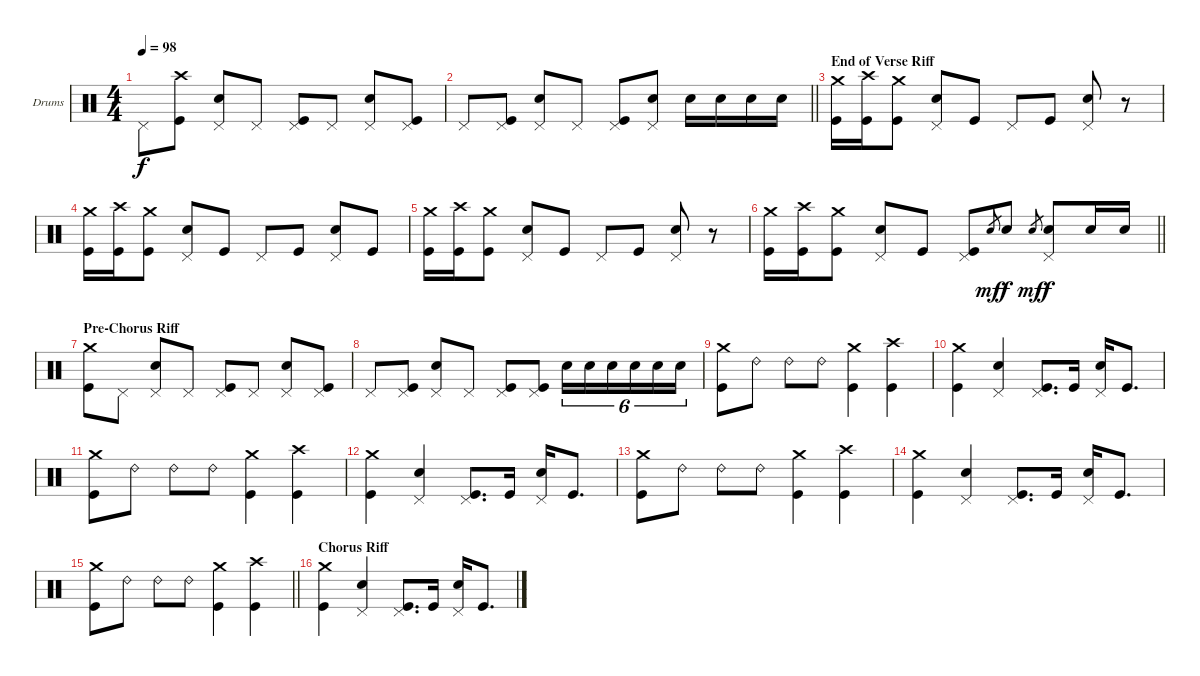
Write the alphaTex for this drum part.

\bracketExtendMode groupsimilarinstruments
\firstSystemTrackNameOrientation horizontal
\otherSystemsTrackNameOrientation horizontal
\track ("Drumkit" "Drums") {instrument percussion}
\staff {score}
\articulation defaults
\ts (4 4)
\tempo 98
\clef neutral
\ks c "Pedal Hi-Hat (hit)".8{dy f}
("Crash high (hit)" "Kick (hit)").8 ("Pedal Hi-Hat (hit)" "Snare (hit) 2").8 "Pedal Hi-Hat (hit)".8 ("Pedal Hi-Hat (hit)" "Kick (hit)").8 "Pedal Hi-Hat (hit)".8 ("Pedal Hi-Hat (hit)" "Snare (hit) 2").8 ("Pedal Hi-Hat (hit)" "Kick (hit)").8 |
\barLineRight lightlight "Pedal Hi-Hat (hit)".8
("Pedal Hi-Hat (hit)" "Kick (hit)").8 ("Pedal Hi-Hat (hit)" "Snare (hit) 2").8 "Pedal Hi-Hat (hit)".8 ("Pedal Hi-Hat (hit)" "Kick (hit)").8 ("Pedal Hi-Hat (hit)" "Snare (hit) 2").8 "Snare (hit) 2".16 "Snare (hit) 2".16 "Snare (hit) 2".16 "Snare (hit) 2".16 |
\section ("" "End of Verse Riff")
("Crash medium (hit)" "Kick (hit)").16 ("Crash high (hit)" "Kick (hit)").16 ("Crash medium (hit)" "Kick (hit)").8 ("Pedal Hi-Hat (hit)" "Snare (hit) 2").8 "Kick (hit)".8 "Pedal Hi-Hat (hit)".8 "Kick (hit)".8 ("Pedal Hi-Hat (hit)" "Snare (hit) 2").8 r.8 |
("Crash medium (hit)" "Kick (hit)").16 ("Crash high (hit)" "Kick (hit)").16 ("Crash medium (hit)" "Kick (hit)").8 ("Pedal Hi-Hat (hit)" "Snare (hit) 2").8 "Kick (hit)".8 "Pedal Hi-Hat (hit)".8 "Kick (hit)".8 ("Pedal Hi-Hat (hit)" "Snare (hit) 2").8 "Kick (hit)".8 |
("Crash medium (hit)" "Kick (hit)").16 ("Crash high (hit)" "Kick (hit)").16 ("Crash medium (hit)" "Kick (hit)").8 ("Pedal Hi-Hat (hit)" "Snare (hit) 2").8 "Kick (hit)".8 "Pedal Hi-Hat (hit)".8 "Kick (hit)".8 ("Pedal Hi-Hat (hit)" "Snare (hit) 2").8 r.8 |
\barLineRight lightlight
("Crash medium (hit)" "Kick (hit)").16 ("Crash high (hit)" "Kick (hit)").16 ("Crash medium (hit)" "Kick (hit)").8 ("Pedal Hi-Hat (hit)" "Snare (hit) 2").8 "Kick (hit)".8 ("Pedal Hi-Hat (hit)" "Kick (hit)").8 "Snare (hit) 2".8{gr dy mf} "Snare (hit) 2".8{dy f} "Snare (hit) 2".8{gr dy mf} ("Pedal Hi-Hat (hit)" "Snare (hit) 2").8{dy f} "Snare (hit) 2".16 "Snare (hit) 2".16 |
\section ("" "Pre-Chorus Riff")
("Crash medium (hit)" "Kick (hit)").8 "Pedal Hi-Hat (hit)".8 ("Pedal Hi-Hat (hit)" "Snare (hit) 2").8 "Pedal Hi-Hat (hit)".8 ("Pedal Hi-Hat (hit)" "Kick (hit)").8 "Pedal Hi-Hat (hit)".8 ("Pedal Hi-Hat (hit)" "Snare (hit) 2").8 ("Pedal Hi-Hat (hit)" "Kick (hit)").8 |
"Pedal Hi-Hat (hit)".8 ("Pedal Hi-Hat (hit)" "Kick (hit)").8 ("Pedal Hi-Hat (hit)" "Snare (hit) 2").8 "Pedal Hi-Hat (hit)".8 ("Pedal Hi-Hat (hit)" "Kick (hit)").8 ("Pedal Hi-Hat (hit)" "Kick (hit)").8 "Snare (hit) 2".16{tu (6 4)} "Snare (hit) 2".16{tu (6 4)} "Snare (hit) 2".16{tu (6 4)} "Snare (hit) 2".16{tu (6 4)} "Snare (hit) 2".16{tu (6 4)} "Snare (hit) 2".16{tu (6 4)} |
("Crash medium (hit)" "Kick (hit)").8 "Ride (bell) 2".8 "Ride (bell) 2".8 "Ride (bell) 2".8 ("Crash medium (hit)" "Kick (hit)").4 ("Crash high (hit)" "Kick (hit)").4 |
("Crash medium (hit)" "Kick (hit)").4 ("Pedal Hi-Hat (hit)" "Snare (hit) 2").4 ("Pedal Hi-Hat (hit)" "Kick (hit)").8{d} "Kick (hit)".16 ("Pedal Hi-Hat (hit)" "Snare (hit) 2").16 "Kick (hit)".8{d} |
("Crash medium (hit)" "Kick (hit)").8 "Ride (bell) 2".8 "Ride (bell) 2".8 "Ride (bell) 2".8 ("Crash medium (hit)" "Kick (hit)").4 ("Crash high (hit)" "Kick (hit)").4 |
("Crash medium (hit)" "Kick (hit)").4 ("Pedal Hi-Hat (hit)" "Snare (hit) 2").4 ("Pedal Hi-Hat (hit)" "Kick (hit)").8{d} "Kick (hit)".16 ("Pedal Hi-Hat (hit)" "Snare (hit) 2").16 "Kick (hit)".8{d} |
("Crash medium (hit)" "Kick (hit)").8 "Ride (bell) 2".8 "Ride (bell) 2".8 "Ride (bell) 2".8 ("Crash medium (hit)" "Kick (hit)").4 ("Crash high (hit)" "Kick (hit)").4 |
("Crash medium (hit)" "Kick (hit)").4 ("Pedal Hi-Hat (hit)" "Snare (hit) 2").4 ("Pedal Hi-Hat (hit)" "Kick (hit)").8{d} "Kick (hit)".16 ("Pedal Hi-Hat (hit)" "Snare (hit) 2").16 "Kick (hit)".8{d} |
\barLineRight lightlight
("Crash medium (hit)" "Kick (hit)").8 "Ride (bell) 2".8 "Ride (bell) 2".8 "Ride (bell) 2".8 ("Crash medium (hit)" "Kick (hit)").4 ("Crash high (hit)" "Kick (hit)").4 |
\section ("" "Chorus Riff")
("Crash medium (hit)" "Kick (hit)").4 ("Pedal Hi-Hat (hit)" "Snare (hit) 2").4 ("Pedal Hi-Hat (hit)" "Kick (hit)").8{d} "Kick (hit)".16 ("Pedal Hi-Hat (hit)" "Snare (hit) 2").16 "Kick (hit)".8{d}
